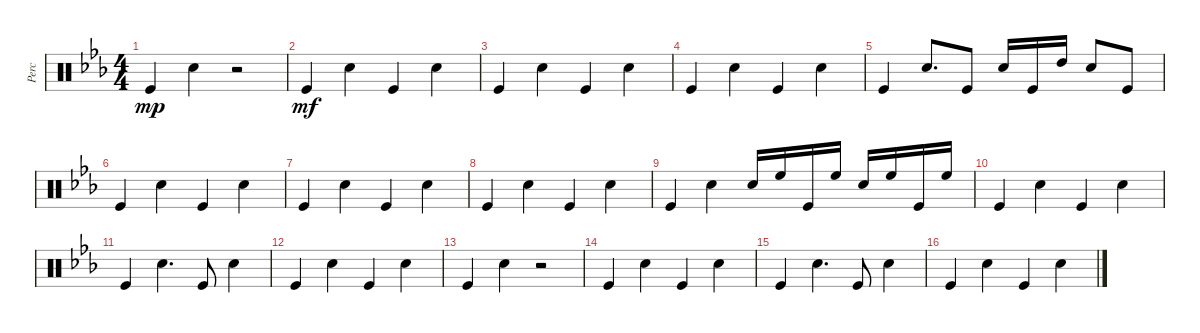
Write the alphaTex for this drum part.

\defaultSystemsLayout 4
\bracketExtendMode groupsimilarinstruments
\otherSystemsTrackNameOrientation horizontal
\track ("Percussions" "Perc") {instrument percussion}
\staff {score}
\articulation defaults
\ts (4 4)
\tempo (140 hide)
\clef neutral
\ks cminor "Kick (hit)".4{dy mp} "Snare (hit) 2".4
r.2 |
"Kick (hit)".4{dy mf} "Snare (hit) 2".4 "Kick (hit)".4 "Snare (hit) 2".4 |
"Kick (hit)".4 "Snare (hit) 2".4 "Kick (hit)".4 "Snare (hit) 2".4 |
"Kick (hit)".4 "Snare (hit) 2".4 "Kick (hit)".4 "Snare (hit) 2".4 |
"Kick (hit)".4 "Snare (hit) 2".8{d} "Kick (hit)".8 "Snare (hit) 2".16 "Kick (hit)".16 "High Tom (hit)".16 "Snare (hit) 2".8 "Kick (hit)".8 |
"Kick (hit)".4 "Snare (hit) 2".4 "Kick (hit)".4 "Snare (hit) 2".4 |
"Kick (hit)".4 "Snare (hit) 2".4 "Kick (hit)".4 "Snare (hit) 2".4 |
"Kick (hit)".4 "Snare (hit) 2".4 "Kick (hit)".4 "Snare (hit) 2".4 |
"Kick (hit)".4 "Snare (hit) 2".4 "Snare (hit) 2".16 "High Floor Tom (hit)".16 "Kick (hit)".16 "High Floor Tom (hit)".16 "Snare (hit) 2".16 "High Floor Tom (hit)".16 "Kick (hit)".16 "High Floor Tom (hit)".16 |
"Kick (hit)".4 "Snare (hit) 2".4 "Kick (hit)".4 "Snare (hit) 2".4 |
"Kick (hit)".4 "Snare (hit) 2".4{d} "Kick (hit)".8 "Snare (hit) 2".4 |
"Kick (hit)".4 "Snare (hit) 2".4 "Kick (hit)".4 "Snare (hit) 2".4 |
"Kick (hit)".4 "Snare (hit) 2".4 r.2 |
"Kick (hit)".4 "Snare (hit) 2".4 "Kick (hit)".4 "Snare (hit) 2".4 |
"Kick (hit)".4 "Snare (hit) 2".4{d} "Kick (hit)".8 "Snare (hit) 2".4 |
"Kick (hit)".4 "Snare (hit) 2".4 "Kick (hit)".4 "Snare (hit) 2".4
